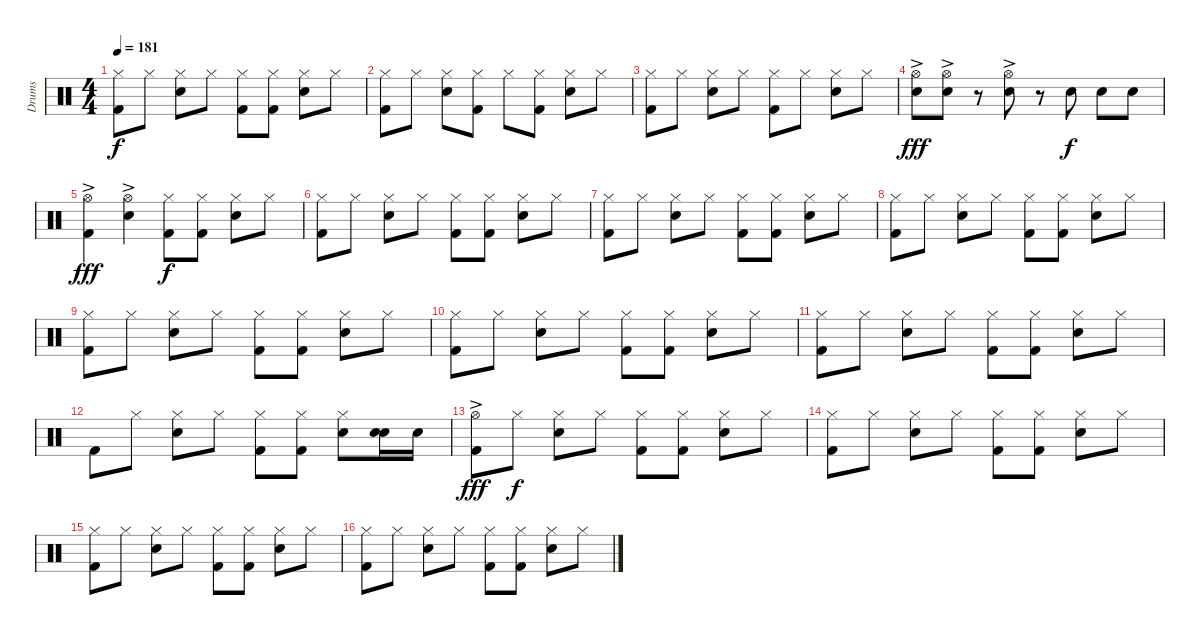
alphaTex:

\track ("Drums" "Drums") {instrument percussion}
\staff {score}
\articulation defaults
\ts (4 4)
\tempo 181
\clef neutral
\ks c
("Hi-Hat (closed)" "Kick (hit) 2").8{dy f} "Hi-Hat (closed)".8 ("Hi-Hat (closed)" "Snare (hit) 2").8 "Hi-Hat (closed)".8 ("Hi-Hat (closed)" "Kick (hit) 2").8 ("Hi-Hat (closed)" "Kick (hit) 2").8 ("Hi-Hat (closed)" "Snare (hit) 2").8 "Hi-Hat (closed)".8 |
("Hi-Hat (closed)" "Kick (hit) 2").8 "Hi-Hat (closed)".8 ("Hi-Hat (closed)" "Snare (hit) 2").8 ("Hi-Hat (closed)" "Kick (hit) 2").8 "Hi-Hat (closed)".8 ("Hi-Hat (closed)" "Kick (hit) 2").8 ("Hi-Hat (closed)" "Snare (hit) 2").8 "Hi-Hat (closed)".8 |
("Hi-Hat (closed)" "Kick (hit) 2").8 "Hi-Hat (closed)".8 ("Hi-Hat (closed)" "Snare (hit) 2").8 "Hi-Hat (closed)".8 ("Hi-Hat (closed)" "Kick (hit) 2").8 "Hi-Hat (closed)".8 ("Hi-Hat (closed)" "Snare (hit) 2").8 "Hi-Hat (closed)".8 |
("Hi-Hat (open)"{ac} "Snare (hit) 2").8{dy fff} ("Hi-Hat (open)"{ac} "Snare (hit) 2").8 r.8 ("Hi-Hat (open)"{ac} "Snare (hit) 2").8 r.8 "Snare (hit) 2".8{dy f} "Snare (hit) 2".8 "Snare (hit) 2".8 |
("Hi-Hat (open)"{ac} "Kick (hit) 2").4{dy fff} ("Hi-Hat (open)"{ac} "Snare (hit) 2").4 ("Hi-Hat (closed)" "Kick (hit) 2").8{dy f} ("Hi-Hat (closed)" "Kick (hit) 2").8 ("Hi-Hat (closed)" "Snare (hit) 2").8 "Hi-Hat (closed)".8 |
("Hi-Hat (closed)" "Kick (hit) 2").8 "Hi-Hat (closed)".8 ("Hi-Hat (closed)" "Snare (hit) 2").8 "Hi-Hat (closed)".8 ("Hi-Hat (closed)" "Kick (hit) 2").8 ("Hi-Hat (closed)" "Kick (hit) 2").8 ("Hi-Hat (closed)" "Snare (hit) 2").8 "Hi-Hat (closed)".8 |
("Hi-Hat (closed)" "Kick (hit) 2").8 "Hi-Hat (closed)".8 ("Hi-Hat (closed)" "Snare (hit) 2").8 "Hi-Hat (closed)".8 ("Hi-Hat (closed)" "Kick (hit) 2").8 ("Hi-Hat (closed)" "Kick (hit) 2").8 ("Hi-Hat (closed)" "Snare (hit) 2").8 "Hi-Hat (closed)".8 |
("Hi-Hat (closed)" "Kick (hit) 2").8 "Hi-Hat (closed)".8 ("Hi-Hat (closed)" "Snare (hit) 2").8 "Hi-Hat (closed)".8 ("Hi-Hat (closed)" "Kick (hit) 2").8 ("Hi-Hat (closed)" "Kick (hit) 2").8 ("Hi-Hat (closed)" "Snare (hit) 2").8 "Hi-Hat (closed)".8 |
("Hi-Hat (closed)" "Kick (hit) 2").8 "Hi-Hat (closed)".8 ("Hi-Hat (closed)" "Snare (hit) 2").8 "Hi-Hat (closed)".8 ("Hi-Hat (closed)" "Kick (hit) 2").8 ("Hi-Hat (closed)" "Kick (hit) 2").8 ("Hi-Hat (closed)" "Snare (hit) 2").8 "Hi-Hat (closed)".8 |
("Hi-Hat (closed)" "Kick (hit) 2").8 "Hi-Hat (closed)".8 ("Hi-Hat (closed)" "Snare (hit) 2").8 "Hi-Hat (closed)".8 ("Hi-Hat (closed)" "Kick (hit) 2").8 ("Hi-Hat (closed)" "Kick (hit) 2").8 ("Hi-Hat (closed)" "Snare (hit) 2").8 "Hi-Hat (closed)".8 |
("Hi-Hat (closed)" "Kick (hit) 2").8 "Hi-Hat (closed)".8 ("Hi-Hat (closed)" "Snare (hit) 2").8 "Hi-Hat (closed)".8 ("Hi-Hat (closed)" "Kick (hit) 2").8 ("Hi-Hat (closed)" "Kick (hit) 2").8 ("Hi-Hat (closed)" "Snare (hit) 2").8 "Hi-Hat (closed)".8 |
"Kick (hit) 2".8 "Hi-Hat (closed)".8 ("Hi-Hat (closed)" "Snare (hit) 2").8 "Hi-Hat (closed)".8 ("Hi-Hat (closed)" "Kick (hit) 2").8 ("Hi-Hat (closed)" "Kick (hit) 2").8 ("Hi-Hat (closed)" "Snare (hit) 2").8 ("Snare (hit)" "Snare (hit) 2").16 "Snare (hit) 2".16 |
("Hi-Hat (open)"{ac} "Kick (hit) 2").8{dy fff} "Hi-Hat (closed)".8{dy f} ("Hi-Hat (closed)" "Snare (hit) 2").8 "Hi-Hat (closed)".8 ("Hi-Hat (closed)" "Kick (hit) 2").8 ("Hi-Hat (closed)" "Kick (hit) 2").8 ("Hi-Hat (closed)" "Snare (hit) 2").8 "Hi-Hat (closed)".8 |
("Hi-Hat (closed)" "Kick (hit) 2").8 "Hi-Hat (closed)".8 ("Hi-Hat (closed)" "Snare (hit) 2").8 "Hi-Hat (closed)".8 ("Hi-Hat (closed)" "Kick (hit) 2").8 ("Hi-Hat (closed)" "Kick (hit) 2").8 ("Hi-Hat (closed)" "Snare (hit) 2").8 "Hi-Hat (closed)".8 |
("Hi-Hat (closed)" "Kick (hit) 2").8 "Hi-Hat (closed)".8 ("Hi-Hat (closed)" "Snare (hit) 2").8 "Hi-Hat (closed)".8 ("Hi-Hat (closed)" "Kick (hit) 2").8 ("Hi-Hat (closed)" "Kick (hit) 2").8 ("Hi-Hat (closed)" "Snare (hit) 2").8 "Hi-Hat (closed)".8 |
("Hi-Hat (closed)" "Kick (hit) 2").8 "Hi-Hat (closed)".8 ("Hi-Hat (closed)" "Snare (hit) 2").8 "Hi-Hat (closed)".8 ("Hi-Hat (closed)" "Kick (hit) 2").8 ("Hi-Hat (closed)" "Kick (hit) 2").8 ("Hi-Hat (closed)" "Snare (hit) 2").8 "Hi-Hat (closed)".8
